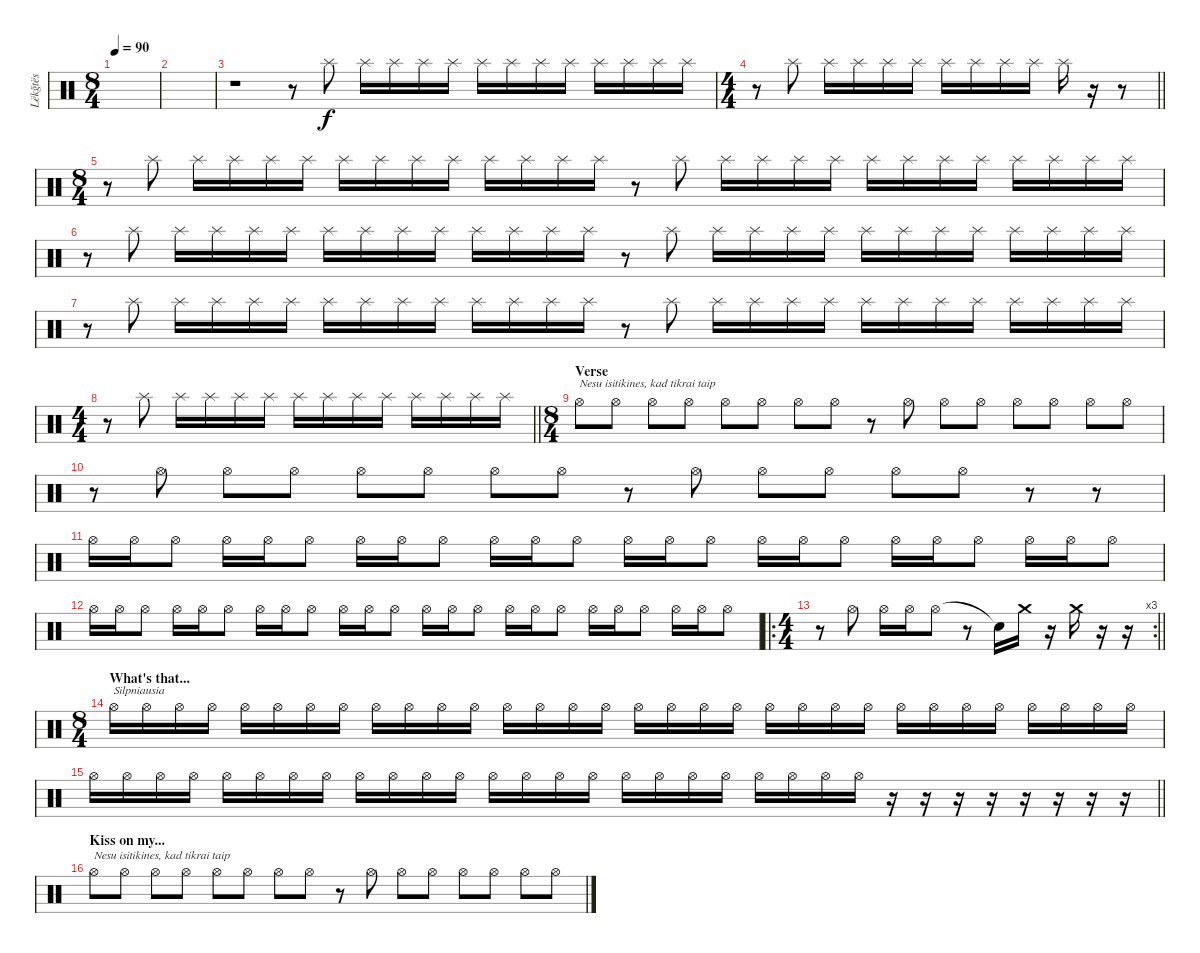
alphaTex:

\track ("Lëkğtës" "Lëkğtës") {instrument percussion}
\staff {score}
\articulation defaults
\ts (8 4)
\tempo 90
\clef neutral
\ks c
|
|
r.1 r.8 "Splash (hit)".8 "Splash (hit)".16 "Splash (hit)".16 "Splash (hit)".16 "Splash (hit)".16 "Splash (hit)".16 "Splash (hit)".16 "Splash (hit)".16 "Splash (hit)".16 "Splash (hit)".16 "Splash (hit)".16 "Splash (hit)".16 "Splash (hit)".16 |
\ts (4 4)
\barLineRight lightlight
r.8 "Splash (hit)".8 "Splash (hit)".16 "Splash (hit)".16 "Splash (hit)".16 "Splash (hit)".16 "Splash (hit)".16 "Splash (hit)".16 "Splash (hit)".16 "Splash (hit)".16 "Splash (hit)".16 r.16 r.8 |
\ts (8 4)
\section ("" "")
r.8 "Splash (hit)".8 "Splash (hit)".16 "Splash (hit)".16 "Splash (hit)".16 "Splash (hit)".16 "Splash (hit)".16 "Splash (hit)".16 "Splash (hit)".16 "Splash (hit)".16 "Splash (hit)".16 "Splash (hit)".16 "Splash (hit)".16 "Splash (hit)".16 r.8 "Splash (hit)".8 "Splash (hit)".16 "Splash (hit)".16 "Splash (hit)".16 "Splash (hit)".16 "Splash (hit)".16 "Splash (hit)".16 "Splash (hit)".16 "Splash (hit)".16 "Splash (hit)".16 "Splash (hit)".16 "Splash (hit)".16 "Splash (hit)".16 |
r.8 "Splash (hit)".8 "Splash (hit)".16 "Splash (hit)".16 "Splash (hit)".16 "Splash (hit)".16 "Splash (hit)".16 "Splash (hit)".16 "Splash (hit)".16 "Splash (hit)".16 "Splash (hit)".16 "Splash (hit)".16 "Splash (hit)".16 "Splash (hit)".16 r.8 "Splash (hit)".8 "Splash (hit)".16 "Splash (hit)".16 "Splash (hit)".16 "Splash (hit)".16 "Splash (hit)".16 "Splash (hit)".16 "Splash (hit)".16 "Splash (hit)".16 "Splash (hit)".16 "Splash (hit)".16 "Splash (hit)".16 "Splash (hit)".16 |
r.8 "Splash (hit)".8 "Splash (hit)".16 "Splash (hit)".16 "Splash (hit)".16 "Splash (hit)".16 "Splash (hit)".16 "Splash (hit)".16 "Splash (hit)".16 "Splash (hit)".16 "Splash (hit)".16 "Splash (hit)".16 "Splash (hit)".16 "Splash (hit)".16 r.8 "Splash (hit)".8 "Splash (hit)".16 "Splash (hit)".16 "Splash (hit)".16 "Splash (hit)".16 "Splash (hit)".16 "Splash (hit)".16 "Splash (hit)".16 "Splash (hit)".16 "Splash (hit)".16 "Splash (hit)".16 "Splash (hit)".16 "Splash (hit)".16 |
\ts (4 4)
\barLineRight lightlight
r.8 "Splash (hit)".8 "Splash (hit)".16 "Splash (hit)".16 "Splash (hit)".16 "Splash (hit)".16 "Splash (hit)".16 "Splash (hit)".16 "Splash (hit)".16 "Splash (hit)".16 "Splash (hit)".16 "Splash (hit)".16 "Splash (hit)".16 "Splash (hit)".16 |
\ts (8 4)
\section ("" "Verse")
"Hi-Hat (open)".8{txt "Nesu isitikines, kad tikrai taip"} "Hi-Hat (open)".8 "Hi-Hat (open)".8 "Hi-Hat (open)".8 "Hi-Hat (open)".8 "Hi-Hat (open)".8 "Hi-Hat (open)".8 "Hi-Hat (open)".8 r.8 "Hi-Hat (open)".8 "Hi-Hat (open)".8 "Hi-Hat (open)".8 "Hi-Hat (open)".8 "Hi-Hat (open)".8 "Hi-Hat (open)".8 "Hi-Hat (open)".8 |
r.8 "Hi-Hat (open)".8 "Hi-Hat (open)".8 "Hi-Hat (open)".8 "Hi-Hat (open)".8 "Hi-Hat (open)".8 "Hi-Hat (open)".8 "Hi-Hat (open)".8 r.8 "Hi-Hat (open)".8 "Hi-Hat (open)".8 "Hi-Hat (open)".8 "Hi-Hat (open)".8 "Hi-Hat (open)".8 r.8 r.8 |
"Hi-Hat (open)".16 "Hi-Hat (open)".16 "Hi-Hat (open)".8 "Hi-Hat (open)".16 "Hi-Hat (open)".16 "Hi-Hat (open)".8 "Hi-Hat (open)".16 "Hi-Hat (open)".16 "Hi-Hat (open)".8 "Hi-Hat (open)".16 "Hi-Hat (open)".16 "Hi-Hat (open)".8 "Hi-Hat (open)".16 "Hi-Hat (open)".16 "Hi-Hat (open)".8 "Hi-Hat (open)".16 "Hi-Hat (open)".16 "Hi-Hat (open)".8 "Hi-Hat (open)".16 "Hi-Hat (open)".16 "Hi-Hat (open)".8 "Hi-Hat (open)".16 "Hi-Hat (open)".16 "Hi-Hat (open)".8 |
"Hi-Hat (open)".16 "Hi-Hat (open)".16 "Hi-Hat (open)".8 "Hi-Hat (open)".16 "Hi-Hat (open)".16 "Hi-Hat (open)".8 "Hi-Hat (open)".16 "Hi-Hat (open)".16 "Hi-Hat (open)".8 "Hi-Hat (open)".16 "Hi-Hat (open)".16 "Hi-Hat (open)".8 "Hi-Hat (open)".16 "Hi-Hat (open)".16 "Hi-Hat (open)".8 "Hi-Hat (open)".16 "Hi-Hat (open)".16 "Hi-Hat (open)".8 "Hi-Hat (open)".16 "Hi-Hat (open)".16 "Hi-Hat (open)".8 "Hi-Hat (open)".16 "Hi-Hat (open)".16 "Hi-Hat (open)".8 |
\ro
\rc 3
\ts (4 4)
\barLineRight lightlight
r.8 "Hi-Hat (open)".8 "Hi-Hat (open)".16 "Hi-Hat (open)".16 "Hi-Hat (open)".8 r.8 "Snare (hit)"{t}.16 "Crash medium (hit)".16 r.16 "Crash medium (hit)".16 r.16 r.16 |
\ts (8 4)
\section ("" "What's that...")
"Hi-Hat (open)".16{txt "Silpniausia"} "Hi-Hat (open)".16 "Hi-Hat (open)".16 "Hi-Hat (open)".16 "Hi-Hat (open)".16 "Hi-Hat (open)".16 "Hi-Hat (open)".16 "Hi-Hat (open)".16 "Hi-Hat (open)".16 "Hi-Hat (open)".16 "Hi-Hat (open)".16 "Hi-Hat (open)".16 "Hi-Hat (open)".16 "Hi-Hat (open)".16 "Hi-Hat (open)".16 "Hi-Hat (open)".16 "Hi-Hat (open)".16 "Hi-Hat (open)".16 "Hi-Hat (open)".16 "Hi-Hat (open)".16 "Hi-Hat (open)".16 "Hi-Hat (open)".16 "Hi-Hat (open)".16 "Hi-Hat (open)".16 "Hi-Hat (open)".16 "Hi-Hat (open)".16 "Hi-Hat (open)".16 "Hi-Hat (open)".16 "Hi-Hat (open)".16 "Hi-Hat (open)".16 "Hi-Hat (open)".16 "Hi-Hat (open)".16 |
\barLineRight lightlight "Hi-Hat (open)".16 "Hi-Hat (open)".16 "Hi-Hat (open)".16 "Hi-Hat (open)".16 "Hi-Hat (open)".16 "Hi-Hat (open)".16 "Hi-Hat (open)".16 "Hi-Hat (open)".16 "Hi-Hat (open)".16 "Hi-Hat (open)".16 "Hi-Hat (open)".16 "Hi-Hat (open)".16 "Hi-Hat (open)".16 "Hi-Hat (open)".16 "Hi-Hat (open)".16 "Hi-Hat (open)".16 "Hi-Hat (open)".16 "Hi-Hat (open)".16 "Hi-Hat (open)".16 "Hi-Hat (open)".16 "Hi-Hat (open)".16 "Hi-Hat (open)".16 "Hi-Hat (open)".16 "Hi-Hat (open)".16
r.16 r.16 r.16 r.16 r.16 r.16 r.16 r.16 |
\section ("" "Kiss on my...")
"Hi-Hat (open)".8{txt "Nesu isitikines, kad tikrai taip"} "Hi-Hat (open)".8 "Hi-Hat (open)".8 "Hi-Hat (open)".8 "Hi-Hat (open)".8 "Hi-Hat (open)".8 "Hi-Hat (open)".8 "Hi-Hat (open)".8 r.8 "Hi-Hat (open)".8 "Hi-Hat (open)".8 "Hi-Hat (open)".8 "Hi-Hat (open)".8 "Hi-Hat (open)".8 "Hi-Hat (open)".8 "Hi-Hat (open)".8
